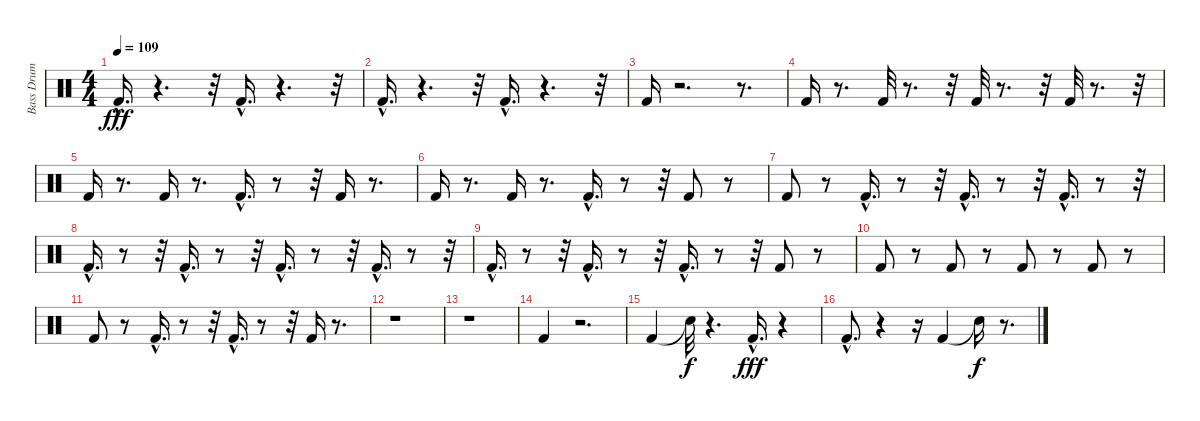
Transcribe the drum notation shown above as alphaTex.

\track ("Bass Drum       " "Bass Drum ") {instrument percussion}
\staff {score}
\articulation defaults
\ts (4 4)
\tempo 109
\clef neutral
\ks c "Kick (hit) 2"{hac}.16{d dy fff}
r.4{d} r.32 "Kick (hit) 2"{hac}.16{d} r.4{d} r.32 |
"Kick (hit) 2"{hac}.16{d} r.4{d} r.32 "Kick (hit) 2"{hac}.16{d} r.4{d} r.32 |
"Kick (hit) 2".16 r.2{d} r.8{d} |
"Kick (hit) 2".16 r.8{d} "Kick (hit) 2".32 r.8{d} r.32 "Kick (hit) 2".32 r.8{d} r.32 "Kick (hit) 2".32 r.8{d} r.32 |
"Kick (hit) 2".16 r.8{d} "Kick (hit) 2".16 r.8{d} "Kick (hit) 2"{hac}.16{d} r.8 r.32 "Kick (hit) 2".16 r.8{d} |
"Kick (hit) 2".16 r.8{d} "Kick (hit) 2".16 r.8{d} "Kick (hit) 2"{hac}.16{d} r.8 r.32 "Kick (hit) 2".8 r.8 |
"Kick (hit) 2".8 r.8 "Kick (hit) 2"{hac}.16{d} r.8 r.32 "Kick (hit) 2"{hac}.16{d} r.8 r.32 "Kick (hit) 2"{hac}.16{d} r.8 r.32 |
"Kick (hit) 2"{hac}.16{d} r.8 r.32 "Kick (hit) 2"{hac}.16{d} r.8 r.32 "Kick (hit) 2"{hac}.16{d} r.8 r.32 "Kick (hit) 2"{hac}.16{d} r.8 r.32 |
"Kick (hit) 2"{hac}.16{d} r.8 r.32 "Kick (hit) 2"{hac}.16{d} r.8 r.32 "Kick (hit) 2"{hac}.16{d} r.8 r.32 "Kick (hit) 2".8 r.8 |
"Kick (hit) 2".8 r.8 "Kick (hit) 2".8 r.8 "Kick (hit) 2".8 r.8 "Kick (hit) 2".8 r.8 |
"Kick (hit) 2".8 r.8 "Kick (hit) 2"{hac}.16{d} r.8 r.32 "Kick (hit) 2"{hac}.16{d} r.8 r.32 "Kick (hit) 2".16 r.8{d} |
r.1 |
r.1 |
"Kick (hit) 2".4 r.2{d} |
"Kick (hit) 2".4 "Snare (hit)"{t}.32{dy f} r.4{d} "Kick (hit) 2"{hac}.16{d dy fff} r.4 |
"Kick (hit) 2"{hac}.8{d} r.4 r.16 "Kick (hit) 2".4 "Snare (hit)"{t}.16{dy f} r.8{d}
